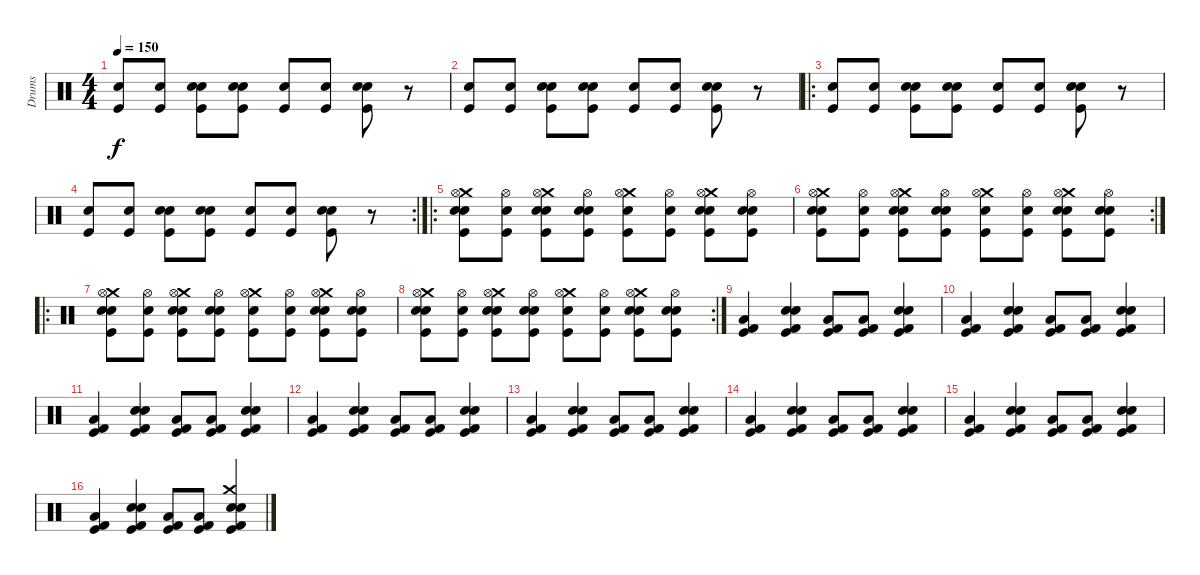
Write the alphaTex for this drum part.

\track ("Drums" "Drums") {instrument percussion}
\staff {score}
\articulation defaults
\ts (4 4)
\tempo 150
\clef neutral
\ks c
("Electric Snare (hit)" "Kick (hit)").8{dy f} ("Electric Snare (hit)" "Kick (hit)").8 ("Snare (hit) 2" "Electric Snare (hit)" "Kick (hit)").8 ("Snare (hit) 2" "Electric Snare (hit)" "Kick (hit)").8 ("Electric Snare (hit)" "Kick (hit)").8 ("Electric Snare (hit)" "Kick (hit)").8 ("Snare (hit) 2" "Electric Snare (hit)" "Kick (hit)").8 r.8 |
("Electric Snare (hit)" "Kick (hit)").8 ("Electric Snare (hit)" "Kick (hit)").8 ("Snare (hit) 2" "Electric Snare (hit)" "Kick (hit)").8 ("Snare (hit) 2" "Electric Snare (hit)" "Kick (hit)").8 ("Electric Snare (hit)" "Kick (hit)").8 ("Electric Snare (hit)" "Kick (hit)").8 ("Snare (hit) 2" "Electric Snare (hit)" "Kick (hit)").8 r.8 |
\ro
("Electric Snare (hit)" "Kick (hit)").8 ("Electric Snare (hit)" "Kick (hit)").8 ("Snare (hit) 2" "Electric Snare (hit)" "Kick (hit)").8 ("Snare (hit) 2" "Electric Snare (hit)" "Kick (hit)").8 ("Electric Snare (hit)" "Kick (hit)").8 ("Electric Snare (hit)" "Kick (hit)").8 ("Snare (hit) 2" "Electric Snare (hit)" "Kick (hit)").8 r.8 |
\rc 2
("Electric Snare (hit)" "Kick (hit)").8 ("Electric Snare (hit)" "Kick (hit)").8 ("Snare (hit) 2" "Electric Snare (hit)" "Kick (hit)").8 ("Snare (hit) 2" "Electric Snare (hit)" "Kick (hit)").8 ("Electric Snare (hit)" "Kick (hit)").8 ("Electric Snare (hit)" "Kick (hit)").8 ("Snare (hit) 2" "Electric Snare (hit)" "Kick (hit)").8 r.8 |
\ro
("Snare (hit) 2" "Crash medium (hit)" "Hi-Hat (open)" "Electric Snare (hit)" "Kick (hit)").8{volume 16} ("Hi-Hat (open)" "Electric Snare (hit)" "Kick (hit)").8 ("Crash medium (hit)" "Hi-Hat (open)" "Snare (hit) 2" "Electric Snare (hit)" "Kick (hit)").8 ("Hi-Hat (open)" "Snare (hit) 2" "Electric Snare (hit)" "Kick (hit)").8 ("Crash medium (hit)" "Hi-Hat (open)" "Electric Snare (hit)" "Kick (hit)").8 ("Hi-Hat (open)" "Electric Snare (hit)" "Kick (hit)").8 ("Crash medium (hit)" "Hi-Hat (open)" "Snare (hit) 2" "Electric Snare (hit)" "Kick (hit)").8 ("Hi-Hat (open)" "Snare (hit) 2" "Electric Snare (hit)" "Kick (hit)").8 |
\rc 2
("Snare (hit) 2" "Crash medium (hit)" "Hi-Hat (open)" "Electric Snare (hit)" "Kick (hit)").8 ("Hi-Hat (open)" "Electric Snare (hit)" "Kick (hit)").8 ("Crash medium (hit)" "Hi-Hat (open)" "Snare (hit) 2" "Electric Snare (hit)" "Kick (hit)").8 ("Hi-Hat (open)" "Snare (hit) 2" "Electric Snare (hit)" "Kick (hit)").8 ("Crash medium (hit)" "Hi-Hat (open)" "Electric Snare (hit)" "Kick (hit)").8 ("Hi-Hat (open)" "Electric Snare (hit)" "Kick (hit)").8 ("Crash medium (hit)" "Hi-Hat (open)" "Snare (hit) 2" "Electric Snare (hit)" "Kick (hit)").8 ("Hi-Hat (open)" "Snare (hit) 2" "Electric Snare (hit)" "Kick (hit)").8 |
\ro
("Snare (hit) 2" "Crash medium (hit)" "Hi-Hat (open)" "Electric Snare (hit)" "Kick (hit)").8{volume 16} ("Hi-Hat (open)" "Electric Snare (hit)" "Kick (hit)").8 ("Crash medium (hit)" "Hi-Hat (open)" "Snare (hit) 2" "Electric Snare (hit)" "Kick (hit)").8 ("Hi-Hat (open)" "Snare (hit) 2" "Electric Snare (hit)" "Kick (hit)").8 ("Crash medium (hit)" "Hi-Hat (open)" "Electric Snare (hit)" "Kick (hit)").8 ("Hi-Hat (open)" "Electric Snare (hit)" "Kick (hit)").8 ("Crash medium (hit)" "Hi-Hat (open)" "Snare (hit) 2" "Electric Snare (hit)" "Kick (hit)").8 ("Hi-Hat (open)" "Snare (hit) 2" "Electric Snare (hit)" "Kick (hit)").8 |
\rc 2
("Snare (hit) 2" "Crash medium (hit)" "Hi-Hat (open)" "Electric Snare (hit)" "Kick (hit)").8 ("Hi-Hat (open)" "Electric Snare (hit)" "Kick (hit)").8 ("Crash medium (hit)" "Hi-Hat (open)" "Snare (hit) 2" "Electric Snare (hit)" "Kick (hit)").8 ("Hi-Hat (open)" "Snare (hit) 2" "Electric Snare (hit)" "Kick (hit)").8 ("Crash medium (hit)" "Hi-Hat (open)" "Electric Snare (hit)" "Kick (hit)").8 ("Hi-Hat (open)" "Electric Snare (hit)" "Kick (hit)").8 ("Crash medium (hit)" "Hi-Hat (open)" "Snare (hit) 2" "Electric Snare (hit)" "Kick (hit)").8 ("Hi-Hat (open)" "Snare (hit) 2" "Electric Snare (hit)" "Kick (hit)").8 |
("Kick (hit) 2" "Low Floor Tom (hit)" "Kick (hit)").4 ("Kick (hit) 2" "Snare (hit) 2" "Electric Snare (hit)" "Kick (hit)").4 ("Kick (hit) 2" "Low Floor Tom (hit)" "Kick (hit)").8 ("Kick (hit) 2" "Low Floor Tom (hit)" "Kick (hit)").8 ("Kick (hit) 2" "Snare (hit) 2" "Electric Snare (hit)" "Kick (hit)").4 |
("Kick (hit) 2" "Low Floor Tom (hit)" "Kick (hit)").4 ("Kick (hit) 2" "Snare (hit) 2" "Electric Snare (hit)" "Kick (hit)").4 ("Kick (hit) 2" "Low Floor Tom (hit)" "Kick (hit)").8 ("Kick (hit) 2" "Low Floor Tom (hit)" "Kick (hit)").8 ("Kick (hit) 2" "Snare (hit) 2" "Electric Snare (hit)" "Kick (hit)").4 |
("Kick (hit) 2" "Low Floor Tom (hit)" "Kick (hit)").4 ("Kick (hit) 2" "Snare (hit) 2" "Electric Snare (hit)" "Kick (hit)").4 ("Kick (hit) 2" "Low Floor Tom (hit)" "Kick (hit)").8 ("Kick (hit) 2" "Low Floor Tom (hit)" "Kick (hit)").8 ("Kick (hit) 2" "Snare (hit) 2" "Electric Snare (hit)" "Kick (hit)").4 |
("Kick (hit) 2" "Low Floor Tom (hit)" "Kick (hit)").4 ("Kick (hit) 2" "Snare (hit) 2" "Electric Snare (hit)" "Kick (hit)").4 ("Kick (hit) 2" "Low Floor Tom (hit)" "Kick (hit)").8 ("Kick (hit) 2" "Low Floor Tom (hit)" "Kick (hit)").8 ("Kick (hit) 2" "Snare (hit) 2" "Electric Snare (hit)" "Kick (hit)").4 |
("Kick (hit) 2" "Low Floor Tom (hit)" "Kick (hit)").4 ("Kick (hit) 2" "Snare (hit) 2" "Electric Snare (hit)" "Kick (hit)").4 ("Kick (hit) 2" "Low Floor Tom (hit)" "Kick (hit)").8 ("Kick (hit) 2" "Low Floor Tom (hit)" "Kick (hit)").8 ("Kick (hit) 2" "Snare (hit) 2" "Electric Snare (hit)" "Kick (hit)").4 |
("Kick (hit) 2" "Low Floor Tom (hit)" "Kick (hit)").4 ("Kick (hit) 2" "Snare (hit) 2" "Electric Snare (hit)" "Kick (hit)").4 ("Kick (hit) 2" "Low Floor Tom (hit)" "Kick (hit)").8 ("Kick (hit) 2" "Low Floor Tom (hit)" "Kick (hit)").8 ("Kick (hit) 2" "Snare (hit) 2" "Electric Snare (hit)" "Kick (hit)").4 |
("Kick (hit) 2" "Low Floor Tom (hit)" "Kick (hit)").4 ("Kick (hit) 2" "Snare (hit) 2" "Electric Snare (hit)" "Kick (hit)").4 ("Kick (hit) 2" "Low Floor Tom (hit)" "Kick (hit)").8 ("Kick (hit) 2" "Low Floor Tom (hit)" "Kick (hit)").8 ("Kick (hit) 2" "Snare (hit) 2" "Electric Snare (hit)" "Kick (hit)").4 |
("Kick (hit) 2" "Low Floor Tom (hit)" "Kick (hit)").4 ("Kick (hit) 2" "Snare (hit) 2" "Electric Snare (hit)" "Kick (hit)").4 ("Kick (hit) 2" "Low Floor Tom (hit)" "Kick (hit)").8 ("Kick (hit) 2" "Low Floor Tom (hit)" "Kick (hit)").8 ("Crash medium (hit)" "Kick (hit) 2" "Snare (hit) 2" "Electric Snare (hit)" "Kick (hit)").4
